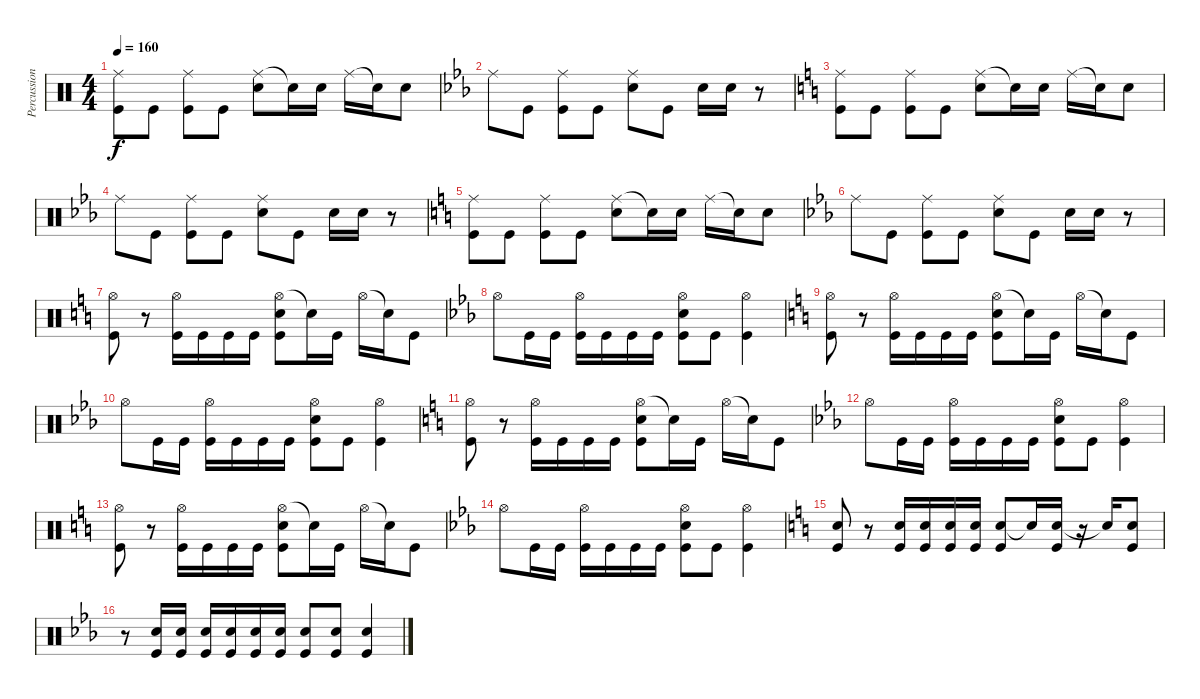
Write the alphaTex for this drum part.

\track ("Percussion" "Percussion") {instrument percussion}
\staff {score}
\articulation defaults
\ts (4 4)
\tempo 160
\clef neutral
\ks c
("Ride (middle)" "Kick (hit)").8{dy f} "Kick (hit)".8 ("Ride (middle)" "Kick (hit)").8 "Kick (hit)".8 ("Ride (middle)" "Electric Snare (hit)").8 "Snare (hit)"{t}.16 "Electric Snare (hit)".16 "Ride (middle)".16 "Snare (hit)"{t}.16 "Electric Snare (hit)".8 |
\ks cminor "Ride (middle)".8 "Kick (hit)".8
("Ride (middle)" "Kick (hit)").8 "Kick (hit)".8 ("Ride (middle)" "Electric Snare (hit)").8 "Kick (hit)".8 "Electric Snare (hit)".16 "Electric Snare (hit)".16 r.8 |
\ks c
("Ride (middle)" "Kick (hit)").8 "Kick (hit)".8 ("Ride (middle)" "Kick (hit)").8 "Kick (hit)".8 ("Ride (middle)" "Electric Snare (hit)").8 "Snare (hit)"{t}.16 "Electric Snare (hit)".16 "Ride (middle)".16 "Snare (hit)"{t}.16 "Electric Snare (hit)".8 |
\ks cminor "Ride (middle)".8 "Kick (hit)".8
("Ride (middle)" "Kick (hit)").8 "Kick (hit)".8 ("Ride (middle)" "Electric Snare (hit)").8 "Kick (hit)".8 "Electric Snare (hit)".16 "Electric Snare (hit)".16 r.8 |
\ks c
("Ride (middle)" "Kick (hit)").8 "Kick (hit)".8 ("Ride (middle)" "Kick (hit)").8 "Kick (hit)".8 ("Ride (middle)" "Electric Snare (hit)").8 "Snare (hit)"{t}.16 "Electric Snare (hit)".16 "Ride (middle)".16 "Snare (hit)"{t}.16 "Electric Snare (hit)".8 |
\ks cminor "Ride (middle)".8 "Kick (hit)".8
("Ride (middle)" "Kick (hit)").8 "Kick (hit)".8 ("Ride (middle)" "Electric Snare (hit)").8 "Kick (hit)".8 "Electric Snare (hit)".16 "Electric Snare (hit)".16 r.8 |
\ks c
("Hi-Hat (open)" "Kick (hit)").8 r.8 ("Hi-Hat (open)" "Kick (hit)").16 "Kick (hit)".16 "Kick (hit)".16 "Kick (hit)".16 ("Hi-Hat (open)" "Electric Snare (hit)" "Kick (hit)").8 "Snare (hit)"{t}.16 "Kick (hit)".16 "Hi-Hat (open)".16 "Snare (hit)"{t}.16 "Kick (hit)".8 |
\ks cminor "Hi-Hat (open)".8 "Kick (hit)".16 "Kick (hit)".16
("Hi-Hat (open)" "Kick (hit)").16 "Kick (hit)".16 "Kick (hit)".16 "Kick (hit)".16 ("Hi-Hat (open)" "Electric Snare (hit)" "Kick (hit)").8 "Kick (hit)".8 ("Hi-Hat (open)" "Kick (hit)").4 |
\ks c
("Hi-Hat (open)" "Kick (hit)").8 r.8 ("Hi-Hat (open)" "Kick (hit)").16 "Kick (hit)".16 "Kick (hit)".16 "Kick (hit)".16 ("Hi-Hat (open)" "Electric Snare (hit)" "Kick (hit)").8 "Snare (hit)"{t}.16 "Kick (hit)".16 "Hi-Hat (open)".16 "Snare (hit)"{t}.16 "Kick (hit)".8 |
\ks cminor "Hi-Hat (open)".8 "Kick (hit)".16 "Kick (hit)".16
("Hi-Hat (open)" "Kick (hit)").16 "Kick (hit)".16 "Kick (hit)".16 "Kick (hit)".16 ("Hi-Hat (open)" "Electric Snare (hit)" "Kick (hit)").8 "Kick (hit)".8 ("Hi-Hat (open)" "Kick (hit)").4 |
\ks c
("Hi-Hat (open)" "Kick (hit)").8 r.8 ("Hi-Hat (open)" "Kick (hit)").16 "Kick (hit)".16 "Kick (hit)".16 "Kick (hit)".16 ("Hi-Hat (open)" "Electric Snare (hit)" "Kick (hit)").8 "Snare (hit)"{t}.16 "Kick (hit)".16 "Hi-Hat (open)".16 "Snare (hit)"{t}.16 "Kick (hit)".8 |
\ks cminor "Hi-Hat (open)".8 "Kick (hit)".16 "Kick (hit)".16
("Hi-Hat (open)" "Kick (hit)").16 "Kick (hit)".16 "Kick (hit)".16 "Kick (hit)".16 ("Hi-Hat (open)" "Electric Snare (hit)" "Kick (hit)").8 "Kick (hit)".8 ("Hi-Hat (open)" "Kick (hit)").4 |
\ks c
("Hi-Hat (open)" "Kick (hit)").8 r.8 ("Hi-Hat (open)" "Kick (hit)").16 "Kick (hit)".16 "Kick (hit)".16 "Kick (hit)".16 ("Hi-Hat (open)" "Electric Snare (hit)" "Kick (hit)").8 "Snare (hit)"{t}.16 "Kick (hit)".16 "Hi-Hat (open)".16 "Snare (hit)"{t}.16 "Kick (hit)".8 |
\ks cminor "Hi-Hat (open)".8 "Kick (hit)".16 "Kick (hit)".16
("Hi-Hat (open)" "Kick (hit)").16 "Kick (hit)".16 "Kick (hit)".16 "Kick (hit)".16 ("Hi-Hat (open)" "Electric Snare (hit)" "Kick (hit)").8 "Kick (hit)".8 ("Hi-Hat (open)" "Kick (hit)").4 |
\ks c
("Electric Snare (hit)" "Kick (hit)").8 r.8 ("Electric Snare (hit)" "Kick (hit)").16 ("Electric Snare (hit)" "Kick (hit)").16 ("Electric Snare (hit)" "Kick (hit)").16 ("Electric Snare (hit)" "Kick (hit)").16 ("Electric Snare (hit)" "Kick (hit)").8 "Snare (hit)"{t}.16 ("Electric Snare (hit)" "Kick (hit)").16 r.16 "Snare (hit)"{t}.16 ("Electric Snare (hit)" "Kick (hit)").8 |
\ks cminor
r.8 ("Electric Snare (hit)" "Kick (hit)").16 ("Electric Snare (hit)" "Kick (hit)").16 ("Electric Snare (hit)" "Kick (hit)").16 ("Electric Snare (hit)" "Kick (hit)").16 ("Electric Snare (hit)" "Kick (hit)").16 ("Electric Snare (hit)" "Kick (hit)").16 ("Electric Snare (hit)" "Kick (hit)").8 ("Electric Snare (hit)" "Kick (hit)").8 ("Electric Snare (hit)" "Kick (hit)").4
